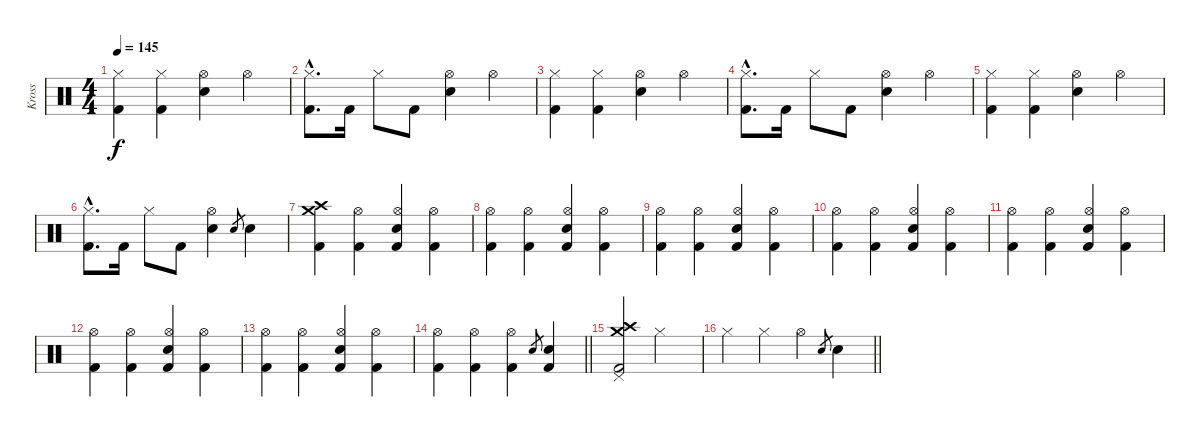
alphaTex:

\track ("Kross" "Kross") {instrument percussion}
\staff {score}
\articulation defaults
\ts (4 4)
\tempo 145
\clef neutral
\ks c
("Hi-Hat (closed)" "Kick (hit) 2").4{dy f} ("Hi-Hat (closed)" "Kick (hit) 2").4 ("Hi-Hat (open)" "Electric Snare (hit)").4 "Hi-Hat (open)".4 |
("Hi-Hat (closed)"{hac} "Kick (hit) 2"{hac}).8{d} "Kick (hit) 2".16 "Hi-Hat (closed)".8 "Kick (hit) 2".8 ("Hi-Hat (open)" "Electric Snare (hit)").4 "Hi-Hat (open)".4 |
("Hi-Hat (closed)" "Kick (hit) 2").4 ("Hi-Hat (closed)" "Kick (hit) 2").4 ("Hi-Hat (open)" "Electric Snare (hit)").4 "Hi-Hat (open)".4 |
("Hi-Hat (closed)"{hac} "Kick (hit) 2"{hac}).8{d} "Kick (hit) 2".16 "Hi-Hat (closed)".8 "Kick (hit) 2".8 ("Hi-Hat (open)" "Electric Snare (hit)").4 "Hi-Hat (open)".4 |
("Hi-Hat (closed)" "Kick (hit) 2").4 ("Hi-Hat (closed)" "Kick (hit) 2").4 ("Hi-Hat (open)" "Electric Snare (hit)").4 "Hi-Hat (open)".4 |
("Hi-Hat (closed)"{hac} "Kick (hit) 2"{hac}).8{d} "Kick (hit) 2".16 "Hi-Hat (closed)".8 "Kick (hit) 2".8 ("Hi-Hat (open)" "Electric Snare (hit)").4 "Electric Snare (hit)".8{gr} "Electric Snare (hit)".4 |
("Crash medium (hit)" "Crash high (hit)" "Kick (hit) 2").4 ("Hi-Hat (open)" "Kick (hit) 2").4 ("Hi-Hat (open)" "Electric Snare (hit)" "Kick (hit) 2").4 ("Hi-Hat (open)" "Kick (hit) 2").4 |
("Hi-Hat (open)" "Kick (hit) 2").4 ("Hi-Hat (open)" "Kick (hit) 2").4 ("Hi-Hat (open)" "Electric Snare (hit)" "Kick (hit) 2").4 ("Hi-Hat (open)" "Kick (hit) 2").4 |
("Hi-Hat (open)" "Kick (hit) 2").4 ("Hi-Hat (open)" "Kick (hit) 2").4 ("Hi-Hat (open)" "Electric Snare (hit)" "Kick (hit) 2").4 ("Hi-Hat (open)" "Kick (hit) 2").4 |
("Hi-Hat (open)" "Kick (hit) 2").4 ("Hi-Hat (open)" "Kick (hit) 2").4 ("Hi-Hat (open)" "Electric Snare (hit)" "Kick (hit) 2").4 ("Hi-Hat (open)" "Kick (hit) 2").4 |
("Hi-Hat (open)" "Kick (hit) 2").4 ("Hi-Hat (open)" "Kick (hit) 2").4 ("Hi-Hat (open)" "Electric Snare (hit)" "Kick (hit) 2").4 ("Hi-Hat (open)" "Kick (hit) 2").4 |
("Hi-Hat (open)" "Kick (hit) 2").4 ("Hi-Hat (open)" "Kick (hit) 2").4 ("Hi-Hat (open)" "Electric Snare (hit)" "Kick (hit) 2").4 ("Hi-Hat (open)" "Kick (hit) 2").4 |
("Hi-Hat (open)" "Kick (hit) 2").4 ("Hi-Hat (open)" "Kick (hit) 2").4 ("Hi-Hat (open)" "Electric Snare (hit)" "Kick (hit) 2").4 ("Hi-Hat (open)" "Kick (hit) 2").4 |
\barLineRight lightlight
("Hi-Hat (open)" "Kick (hit) 2").4 ("Hi-Hat (open)" "Kick (hit) 2").4 ("Hi-Hat (open)" "Kick (hit) 2").4 "Electric Snare (hit)".8{gr} ("Electric Snare (hit)" "Kick (hit) 2").4 |
("Crash medium (hit)" "Crash high (hit)" "Pedal Hi-Hat (hit)" "Kick (hit) 2").2 "Hi-Hat (closed)".2 |
\barLineRight lightlight "Hi-Hat (closed)".4 "Hi-Hat (closed)".4 "Hi-Hat (open)".4 "Electric Snare (hit)".8{gr} "Electric Snare (hit)".4
